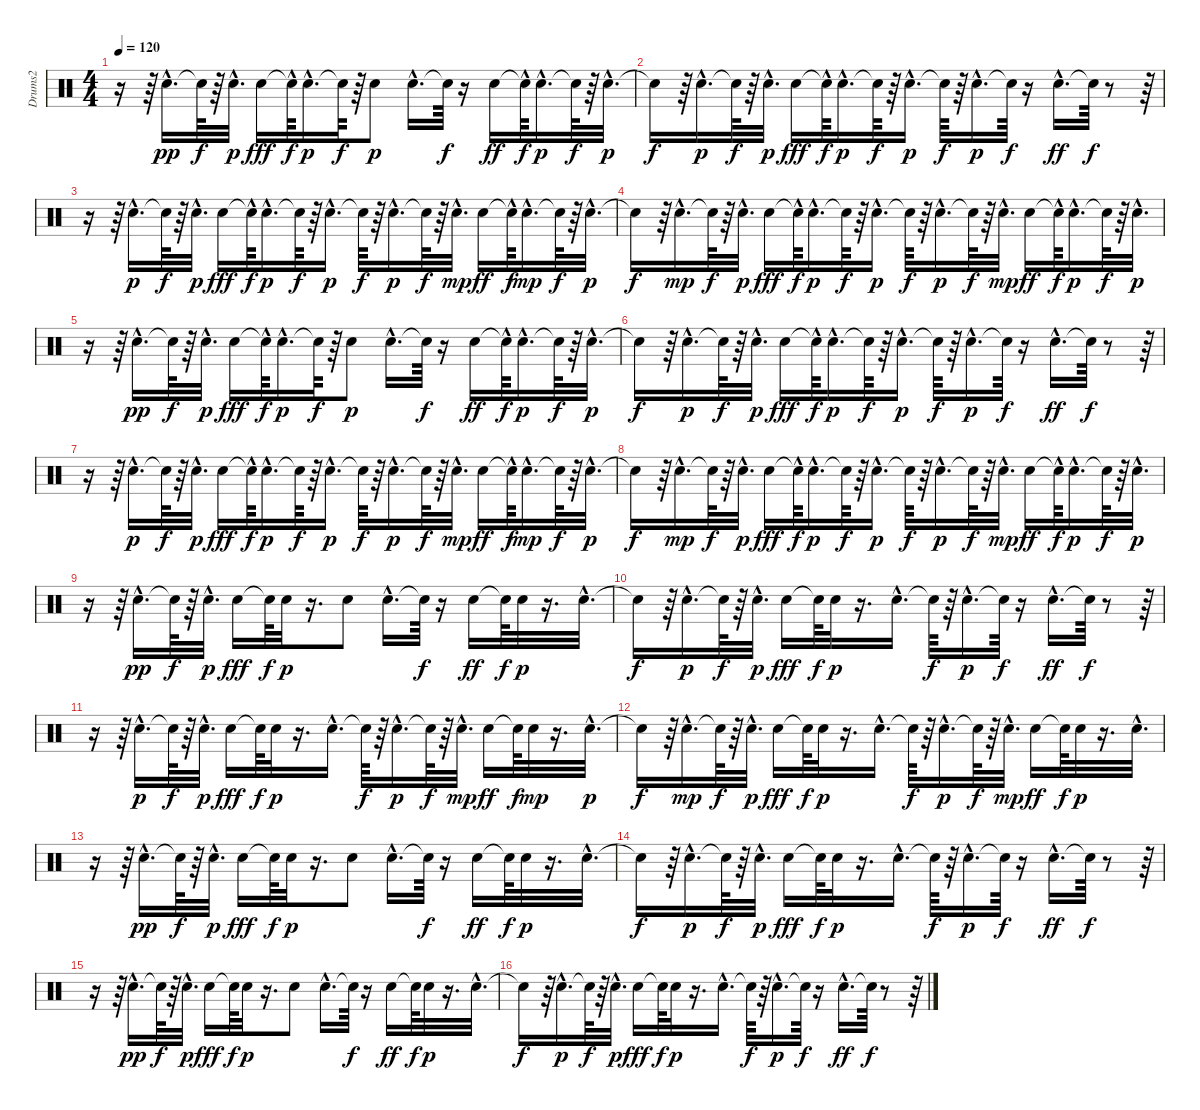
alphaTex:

\track ("Drums2" "Drums2") {instrument percussion}
\staff {score}
\articulation defaults
\ts (4 4)
\tempo 120
\clef neutral
\ks c
r.16{dy p} r.64 "Electric Snare (hit)"{hac}.16{d dy pp} "Snare (hit)"{t}.64{dy f} r.64 "Electric Snare (hit)"{hac}.32{d dy p} "Snare (hit) 2".16{dy fff} "Snare (hit)"{hac t}.64{dy f} "Electric Snare (hit)"{hac}.16{d dy p} "Snare (hit)"{t}.64{dy f} r.64 "Electric Snare (hit)".8{dy p} "Electric Snare (hit)"{hac}.16{d} "Snare (hit)"{t}.64{dy f} r.16 "Snare (hit) 2".16{dy ff} "Snare (hit)"{hac t}.64{dy f} "Electric Snare (hit)"{hac}.16{d dy p} "Snare (hit)"{t}.64{dy f} r.64 "Electric Snare (hit)"{hac}.32{d dy p} |
"Snare (hit)"{t}.16{dy f} r.64 "Electric Snare (hit)"{hac}.16{d dy p} "Snare (hit)"{t}.64{dy f} r.64 "Electric Snare (hit)"{hac}.32{d dy p} "Snare (hit) 2".16{dy fff} "Snare (hit)"{hac t}.64{dy f} "Electric Snare (hit)"{hac}.16{d dy p} "Snare (hit)"{t}.64{dy f} r.64 "Electric Snare (hit)"{hac}.16{d dy p} "Snare (hit)"{t}.64{dy f} r.64 "Electric Snare (hit)"{hac}.16{d dy p} "Snare (hit)"{t}.64{dy f} r.16 "Snare (hit) 2"{hac}.16{d dy ff} "Snare (hit)"{t}.64{dy f} r.8 r.64 |
r.16 r.64 "Electric Snare (hit)"{hac}.16{d dy p} "Snare (hit)"{t}.64{dy f} r.64 "Electric Snare (hit)"{hac}.32{d dy p} "Snare (hit) 2".16{dy fff} "Snare (hit)"{hac t}.64{dy f} "Electric Snare (hit)"{hac}.16{d dy p} "Snare (hit)"{t}.64{dy f} r.64 "Electric Snare (hit)"{hac}.16{d dy p} "Snare (hit)"{t}.64{dy f} r.64 "Electric Snare (hit)"{hac}.16{d dy p} "Snare (hit)"{t}.64{dy f} r.64 "Electric Snare (hit)"{hac}.32{d dy mp} "Snare (hit) 2".16{dy ff} "Snare (hit)"{hac t}.64{dy f} "Electric Snare (hit)"{hac}.16{d dy mp} "Snare (hit)"{t}.64{dy f} r.64 "Electric Snare (hit)"{hac}.32{d dy p} |
"Snare (hit)"{t}.16{dy f} r.64 "Electric Snare (hit)"{hac}.16{d dy mp} "Snare (hit)"{t}.64{dy f} r.64 "Electric Snare (hit)"{hac}.32{d dy p} "Snare (hit) 2".16{dy fff} "Snare (hit)"{hac t}.64{dy f} "Electric Snare (hit)"{hac}.16{d dy p} "Snare (hit)"{t}.64{dy f} r.64 "Electric Snare (hit)"{hac}.16{d dy p} "Snare (hit)"{t}.64{dy f} r.64 "Electric Snare (hit)"{hac}.16{d dy p} "Snare (hit)"{t}.64{dy f} r.64 "Electric Snare (hit)"{hac}.32{d dy mp} "Snare (hit) 2".16{dy ff} "Snare (hit)"{hac t}.64{dy f} "Electric Snare (hit)"{hac}.16{d dy p} "Snare (hit)"{t}.64{dy f} r.64 "Electric Snare (hit)"{hac}.32{d dy p} |
r.16 r.64 "Electric Snare (hit)"{hac}.16{d dy pp} "Snare (hit)"{t}.64{dy f} r.64 "Electric Snare (hit)"{hac}.32{d dy p} "Snare (hit) 2".16{dy fff} "Snare (hit)"{hac t}.64{dy f} "Electric Snare (hit)"{hac}.16{d dy p} "Snare (hit)"{t}.64{dy f} r.64 "Electric Snare (hit)".8{dy p} "Electric Snare (hit)"{hac}.16{d} "Snare (hit)"{t}.64{dy f} r.16 "Snare (hit) 2".16{dy ff} "Snare (hit)"{hac t}.64{dy f} "Electric Snare (hit)"{hac}.16{d dy p} "Snare (hit)"{t}.64{dy f} r.64 "Electric Snare (hit)"{hac}.32{d dy p} |
"Snare (hit)"{t}.16{dy f} r.64 "Electric Snare (hit)"{hac}.16{d dy p} "Snare (hit)"{t}.64{dy f} r.64 "Electric Snare (hit)"{hac}.32{d dy p} "Snare (hit) 2".16{dy fff} "Snare (hit)"{hac t}.64{dy f} "Electric Snare (hit)"{hac}.16{d dy p} "Snare (hit)"{t}.64{dy f} r.64 "Electric Snare (hit)"{hac}.16{d dy p} "Snare (hit)"{t}.64{dy f} r.64 "Electric Snare (hit)"{hac}.16{d dy p} "Snare (hit)"{t}.64{dy f} r.16 "Snare (hit) 2"{hac}.16{d dy ff} "Snare (hit)"{t}.64{dy f} r.8 r.64 |
r.16 r.64 "Electric Snare (hit)"{hac}.16{d dy p} "Snare (hit)"{t}.64{dy f} r.64 "Electric Snare (hit)"{hac}.32{d dy p} "Snare (hit) 2".16{dy fff} "Snare (hit)"{hac t}.64{dy f} "Electric Snare (hit)"{hac}.16{d dy p} "Snare (hit)"{t}.64{dy f} r.64 "Electric Snare (hit)"{hac}.16{d dy p} "Snare (hit)"{t}.64{dy f} r.64 "Electric Snare (hit)"{hac}.16{d dy p} "Snare (hit)"{t}.64{dy f} r.64 "Electric Snare (hit)"{hac}.32{d dy mp} "Snare (hit) 2".16{dy ff} "Snare (hit)"{hac t}.64{dy f} "Electric Snare (hit)"{hac}.16{d dy mp} "Snare (hit)"{t}.64{dy f} r.64 "Electric Snare (hit)"{hac}.32{d dy p} |
"Snare (hit)"{t}.16{dy f} r.64 "Electric Snare (hit)"{hac}.16{d dy mp} "Snare (hit)"{t}.64{dy f} r.64 "Electric Snare (hit)"{hac}.32{d dy p} "Snare (hit) 2".16{dy fff} "Snare (hit)"{hac t}.64{dy f} "Electric Snare (hit)"{hac}.16{d dy p} "Snare (hit)"{t}.64{dy f} r.64 "Electric Snare (hit)"{hac}.16{d dy p} "Snare (hit)"{t}.64{dy f} r.64 "Electric Snare (hit)"{hac}.16{d dy p} "Snare (hit)"{t}.64{dy f} r.64 "Electric Snare (hit)"{hac}.32{d dy mp} "Snare (hit) 2".16{dy ff} "Snare (hit)"{hac t}.64{dy f} "Electric Snare (hit)"{hac}.16{d dy p} "Snare (hit)"{t}.64{dy f} r.64 "Electric Snare (hit)"{hac}.32{d dy p} |
r.16 r.64 "Electric Snare (hit)"{hac}.16{d dy pp} "Snare (hit)"{t}.64{dy f} r.64 "Electric Snare (hit)"{hac}.32{d dy p} "Electric Snare (hit)".16{dy fff} "Snare (hit)"{t}.64{dy f} "Electric Snare (hit)".32{dy p} r.16{d} "Electric Snare (hit)".8 "Electric Snare (hit)"{hac}.16{d} "Snare (hit)"{t}.64{dy f} r.16 "Electric Snare (hit)".16{dy ff} "Snare (hit)"{t}.64{dy f} "Electric Snare (hit)".32{dy p} r.16{d} "Electric Snare (hit)"{hac}.32{d} |
"Snare (hit)"{t}.16{dy f} r.64 "Electric Snare (hit)"{hac}.16{d dy p} "Snare (hit)"{t}.64{dy f} r.64 "Electric Snare (hit)"{hac}.32{d dy p} "Electric Snare (hit)".16{dy fff} "Snare (hit)"{t}.64{dy f} "Electric Snare (hit)".32{dy p} r.16{d} "Electric Snare (hit)"{hac}.16{d} "Snare (hit)"{t}.64{dy f} r.64 "Electric Snare (hit)"{hac}.16{d dy p} "Snare (hit)"{t}.64{dy f} r.16 "Electric Snare (hit)"{hac}.16{d dy ff} "Snare (hit)"{t}.64{dy f} r.8 r.64 |
r.16 r.64 "Electric Snare (hit)"{hac}.16{d dy p} "Snare (hit)"{t}.64{dy f} r.64 "Electric Snare (hit)"{hac}.32{d dy p} "Electric Snare (hit)".16{dy fff} "Snare (hit)"{t}.64{dy f} "Electric Snare (hit)".32{dy p} r.16{d} "Electric Snare (hit)"{hac}.16{d} "Snare (hit)"{t}.64{dy f} r.64 "Electric Snare (hit)"{hac}.16{d dy p} "Snare (hit)"{t}.64{dy f} r.64 "Electric Snare (hit)"{hac}.32{d dy mp} "Electric Snare (hit)".16{dy ff} "Snare (hit)"{t}.64{dy f} "Electric Snare (hit)".32{dy mp} r.16{d} "Electric Snare (hit)"{hac}.32{d dy p} |
"Snare (hit)"{t}.16{dy f} r.64 "Electric Snare (hit)"{hac}.16{d dy mp} "Snare (hit)"{t}.64{dy f} r.64 "Electric Snare (hit)"{hac}.32{d dy p} "Electric Snare (hit)".16{dy fff} "Snare (hit)"{t}.64{dy f} "Electric Snare (hit)".32{dy p} r.16{d} "Electric Snare (hit)"{hac}.16{d} "Snare (hit)"{t}.64{dy f} r.64 "Electric Snare (hit)"{hac}.16{d dy p} "Snare (hit)"{t}.64{dy f} r.64 "Electric Snare (hit)"{hac}.32{d dy mp} "Electric Snare (hit)".16{dy ff} "Snare (hit)"{t}.64{dy f} "Electric Snare (hit)".32{dy p} r.16{d} "Electric Snare (hit)"{hac}.32{d} |
r.16 r.64 "Electric Snare (hit)"{hac}.16{d dy pp} "Snare (hit)"{t}.64{dy f} r.64 "Electric Snare (hit)"{hac}.32{d dy p} "Electric Snare (hit)".16{dy fff} "Snare (hit)"{t}.64{dy f} "Electric Snare (hit)".32{dy p} r.16{d} "Electric Snare (hit)".8 "Electric Snare (hit)"{hac}.16{d} "Snare (hit)"{t}.64{dy f} r.16 "Electric Snare (hit)".16{dy ff} "Snare (hit)"{t}.64{dy f} "Electric Snare (hit)".32{dy p} r.16{d} "Electric Snare (hit)"{hac}.32{d} |
"Snare (hit)"{t}.16{dy f} r.64 "Electric Snare (hit)"{hac}.16{d dy p} "Snare (hit)"{t}.64{dy f} r.64 "Electric Snare (hit)"{hac}.32{d dy p} "Electric Snare (hit)".16{dy fff} "Snare (hit)"{t}.64{dy f} "Electric Snare (hit)".32{dy p} r.16{d} "Electric Snare (hit)"{hac}.16{d} "Snare (hit)"{t}.64{dy f} r.64 "Electric Snare (hit)"{hac}.16{d dy p} "Snare (hit)"{t}.64{dy f} r.16 "Electric Snare (hit)"{hac}.16{d dy ff} "Snare (hit)"{t}.64{dy f} r.8 r.64 |
r.16 r.64 "Electric Snare (hit)"{hac}.16{d dy pp} "Snare (hit)"{t}.64{dy f} r.64 "Electric Snare (hit)"{hac}.32{d dy p} "Electric Snare (hit)".16{dy fff} "Snare (hit)"{t}.64{dy f} "Electric Snare (hit)".32{dy p} r.16{d} "Electric Snare (hit)".8 "Electric Snare (hit)"{hac}.16{d} "Snare (hit)"{t}.64{dy f} r.16 "Electric Snare (hit)".16{dy ff} "Snare (hit)"{t}.64{dy f} "Electric Snare (hit)".32{dy p} r.16{d} "Electric Snare (hit)"{hac}.32{d} |
"Snare (hit)"{t}.16{dy f} r.64 "Electric Snare (hit)"{hac}.16{d dy p} "Snare (hit)"{t}.64{dy f} r.64 "Electric Snare (hit)"{hac}.32{d dy p} "Electric Snare (hit)".16{dy fff} "Snare (hit)"{t}.64{dy f} "Electric Snare (hit)".32{dy p} r.16{d} "Electric Snare (hit)"{hac}.16{d} "Snare (hit)"{t}.64{dy f} r.64 "Electric Snare (hit)"{hac}.16{d dy p} "Snare (hit)"{t}.64{dy f} r.16 "Electric Snare (hit)"{hac}.16{d dy ff} "Snare (hit)"{t}.64{dy f} r.8 r.64
